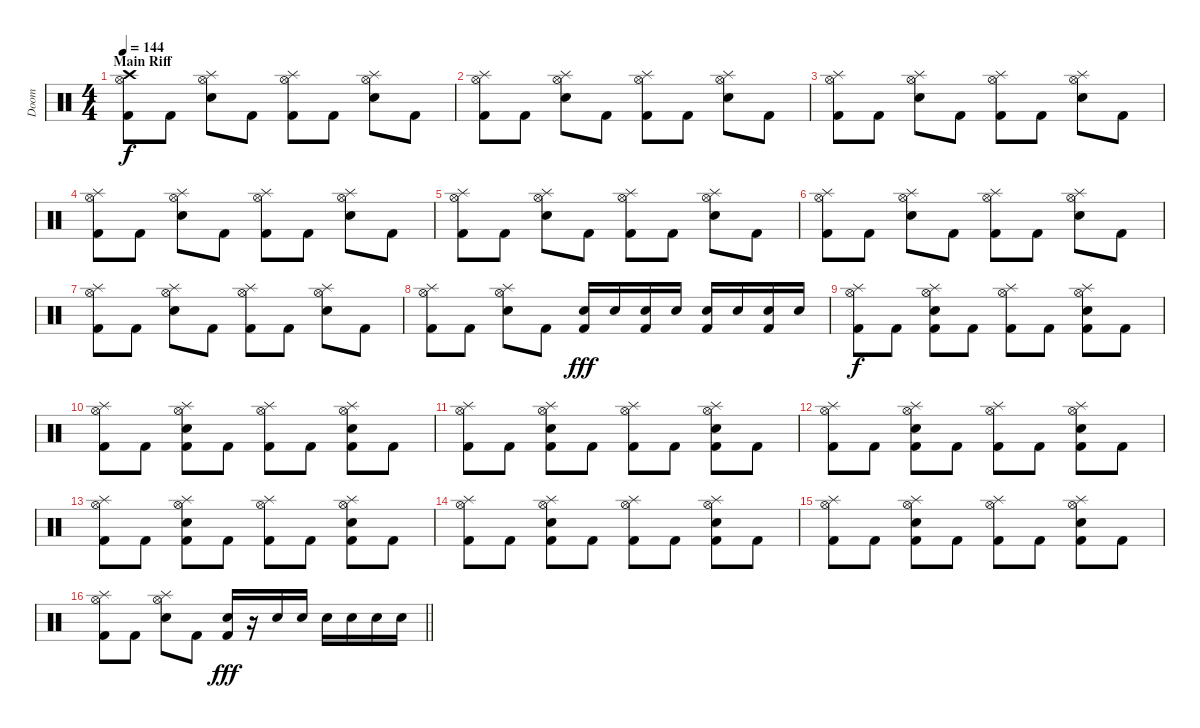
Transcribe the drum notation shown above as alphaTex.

\track ("Doom" "Doom") {instrument percussion}
\staff {score}
\articulation defaults
\ts (4 4)
\section ("" "Main Riff")
\tempo 144
\clef neutral
\ks c
("Kick (hit) 2" "Hi-Hat (open)" "Crash high (hit)").8{dy f} "Kick (hit) 2".8 ("Snare (hit) 2" "Hi-Hat (open)" "Splash (hit)").8 "Kick (hit) 2".8 ("Kick (hit) 2" "Hi-Hat (open)" "Splash (hit)").8 "Kick (hit) 2".8 ("Snare (hit) 2" "Hi-Hat (open)" "Splash (hit)").8 "Kick (hit) 2".8 |
("Kick (hit) 2" "Hi-Hat (open)" "Splash (hit)").8 "Kick (hit) 2".8 ("Snare (hit) 2" "Hi-Hat (open)" "Splash (hit)").8 "Kick (hit) 2".8 ("Kick (hit) 2" "Hi-Hat (open)" "Splash (hit)").8 "Kick (hit) 2".8 ("Snare (hit) 2" "Hi-Hat (open)" "Splash (hit)").8 "Kick (hit) 2".8 |
("Kick (hit) 2" "Hi-Hat (open)" "Splash (hit)").8 "Kick (hit) 2".8 ("Snare (hit) 2" "Hi-Hat (open)" "Splash (hit)").8 "Kick (hit) 2".8 ("Kick (hit) 2" "Hi-Hat (open)" "Splash (hit)").8 "Kick (hit) 2".8 ("Snare (hit) 2" "Hi-Hat (open)" "Splash (hit)").8 "Kick (hit) 2".8 |
("Kick (hit) 2" "Hi-Hat (open)" "Splash (hit)").8 "Kick (hit) 2".8 ("Snare (hit) 2" "Hi-Hat (open)" "Splash (hit)").8 "Kick (hit) 2".8 ("Kick (hit) 2" "Hi-Hat (open)" "Splash (hit)").8 "Kick (hit) 2".8 ("Snare (hit) 2" "Hi-Hat (open)" "Splash (hit)").8 "Kick (hit) 2".8 |
("Kick (hit) 2" "Hi-Hat (open)" "Splash (hit)").8 "Kick (hit) 2".8 ("Snare (hit) 2" "Hi-Hat (open)" "Splash (hit)").8 "Kick (hit) 2".8 ("Kick (hit) 2" "Hi-Hat (open)" "Splash (hit)").8 "Kick (hit) 2".8 ("Snare (hit) 2" "Hi-Hat (open)" "Splash (hit)").8 "Kick (hit) 2".8 |
("Kick (hit) 2" "Hi-Hat (open)" "Splash (hit)").8 "Kick (hit) 2".8 ("Snare (hit) 2" "Hi-Hat (open)" "Splash (hit)").8 "Kick (hit) 2".8 ("Kick (hit) 2" "Hi-Hat (open)" "Splash (hit)").8 "Kick (hit) 2".8 ("Snare (hit) 2" "Hi-Hat (open)" "Splash (hit)").8 "Kick (hit) 2".8 |
("Kick (hit) 2" "Hi-Hat (open)" "Splash (hit)").8 "Kick (hit) 2".8 ("Snare (hit) 2" "Hi-Hat (open)" "Splash (hit)").8 "Kick (hit) 2".8 ("Kick (hit) 2" "Hi-Hat (open)" "Splash (hit)").8 "Kick (hit) 2".8 ("Snare (hit) 2" "Hi-Hat (open)" "Splash (hit)").8 "Kick (hit) 2".8 |
("Kick (hit) 2" "Hi-Hat (open)" "Splash (hit)").8 "Kick (hit) 2".8 ("Snare (hit) 2" "Hi-Hat (open)" "Splash (hit)").8 "Kick (hit) 2".8 ("Snare (hit) 2" "Kick (hit) 2").16{dy fff} "Snare (hit) 2".16 ("Kick (hit) 2" "Snare (hit) 2").16 "Snare (hit) 2".16 ("Snare (hit) 2" "Kick (hit) 2").16 "Snare (hit) 2".16 ("Snare (hit) 2" "Kick (hit) 2").16 "Snare (hit) 2".16 |
("Kick (hit) 2" "Hi-Hat (open)" "Splash (hit)").8{dy f} "Kick (hit) 2".8 ("Snare (hit) 2" "Hi-Hat (open)" "Splash (hit)" "Kick (hit) 2").8 "Kick (hit) 2".8 ("Kick (hit) 2" "Hi-Hat (open)" "Splash (hit)").8 "Kick (hit) 2".8 ("Snare (hit) 2" "Hi-Hat (open)" "Splash (hit)" "Kick (hit) 2").8 "Kick (hit) 2".8 |
("Kick (hit) 2" "Hi-Hat (open)" "Splash (hit)").8 "Kick (hit) 2".8 ("Snare (hit) 2" "Hi-Hat (open)" "Splash (hit)" "Kick (hit) 2").8 "Kick (hit) 2".8 ("Kick (hit) 2" "Hi-Hat (open)" "Splash (hit)").8 "Kick (hit) 2".8 ("Snare (hit) 2" "Hi-Hat (open)" "Splash (hit)" "Kick (hit) 2").8 "Kick (hit) 2".8 |
("Kick (hit) 2" "Hi-Hat (open)" "Splash (hit)").8 "Kick (hit) 2".8 ("Snare (hit) 2" "Hi-Hat (open)" "Splash (hit)" "Kick (hit) 2").8 "Kick (hit) 2".8 ("Kick (hit) 2" "Hi-Hat (open)" "Splash (hit)").8 "Kick (hit) 2".8 ("Snare (hit) 2" "Hi-Hat (open)" "Splash (hit)" "Kick (hit) 2").8 "Kick (hit) 2".8 |
("Kick (hit) 2" "Hi-Hat (open)" "Splash (hit)").8 "Kick (hit) 2".8 ("Snare (hit) 2" "Hi-Hat (open)" "Splash (hit)" "Kick (hit) 2").8 "Kick (hit) 2".8 ("Kick (hit) 2" "Hi-Hat (open)" "Splash (hit)").8 "Kick (hit) 2".8 ("Snare (hit) 2" "Hi-Hat (open)" "Splash (hit)" "Kick (hit) 2").8 "Kick (hit) 2".8 |
("Kick (hit) 2" "Hi-Hat (open)" "Splash (hit)").8 "Kick (hit) 2".8 ("Snare (hit) 2" "Hi-Hat (open)" "Splash (hit)" "Kick (hit) 2").8 "Kick (hit) 2".8 ("Kick (hit) 2" "Hi-Hat (open)" "Splash (hit)").8 "Kick (hit) 2".8 ("Snare (hit) 2" "Hi-Hat (open)" "Splash (hit)" "Kick (hit) 2").8 "Kick (hit) 2".8 |
("Kick (hit) 2" "Hi-Hat (open)" "Splash (hit)").8 "Kick (hit) 2".8 ("Snare (hit) 2" "Hi-Hat (open)" "Splash (hit)" "Kick (hit) 2").8 "Kick (hit) 2".8 ("Kick (hit) 2" "Hi-Hat (open)" "Splash (hit)").8 "Kick (hit) 2".8 ("Snare (hit) 2" "Hi-Hat (open)" "Splash (hit)" "Kick (hit) 2").8 "Kick (hit) 2".8 |
("Kick (hit) 2" "Hi-Hat (open)" "Splash (hit)").8 "Kick (hit) 2".8 ("Snare (hit) 2" "Hi-Hat (open)" "Splash (hit)" "Kick (hit) 2").8 "Kick (hit) 2".8 ("Kick (hit) 2" "Hi-Hat (open)" "Splash (hit)").8 "Kick (hit) 2".8 ("Snare (hit) 2" "Hi-Hat (open)" "Splash (hit)" "Kick (hit) 2").8 "Kick (hit) 2".8 |
\barLineRight lightlight
("Kick (hit) 2" "Hi-Hat (open)" "Splash (hit)").8 "Kick (hit) 2".8 ("Snare (hit) 2" "Hi-Hat (open)" "Splash (hit)").8 "Kick (hit) 2".8 ("Snare (hit) 2" "Kick (hit) 2").16{dy fff} r.16 "Snare (hit) 2".16 "Snare (hit) 2".16 "Snare (hit) 2".16 "Snare (hit) 2".16 "Snare (hit) 2".16 "Snare (hit) 2".16
